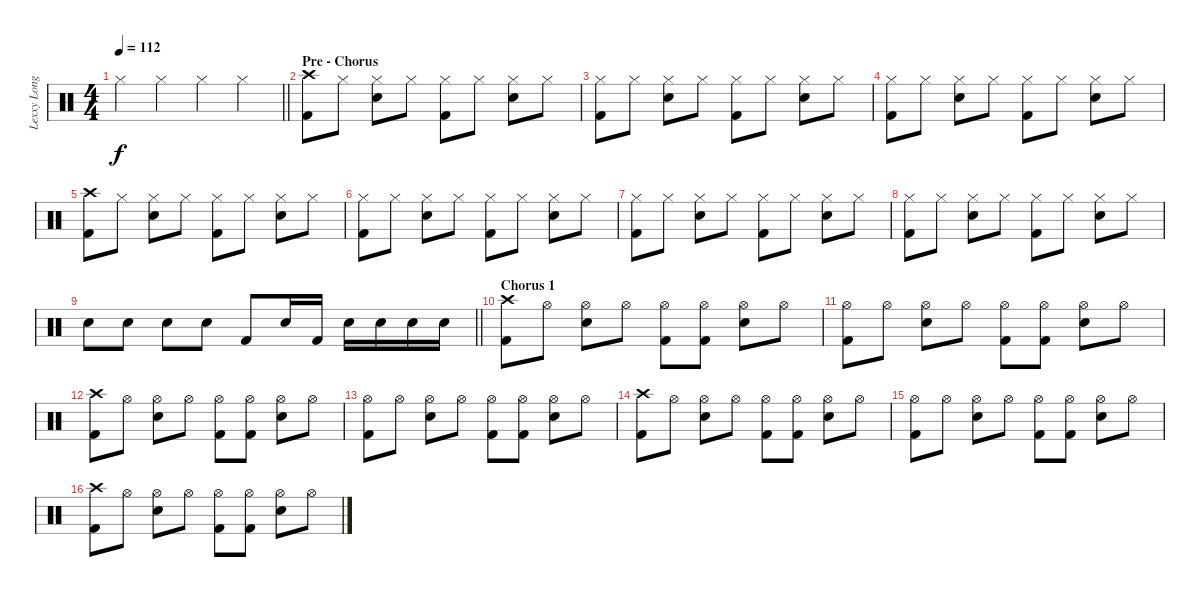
\track ("Lexxy Longlegz (Chuto)" "Lexxy Long") {instrument percussion}
\staff {score}
\articulation defaults
\ts (4 4)
\tempo 112
\clef neutral
\barLineRight lightlight
\ks c "Hi-Hat (closed)".4{dy f} "Hi-Hat (closed)".4 "Hi-Hat (closed)".4 "Hi-Hat (closed)".4
|
\section ("" "Pre - Chorus")
("Crash high (hit)" "Kick (hit) 2").8 "Hi-Hat (closed)".8 ("Hi-Hat (closed)" "Snare (hit) 2").8 "Hi-Hat (closed)".8 ("Hi-Hat (closed)" "Kick (hit) 2").8 "Hi-Hat (closed)".8 ("Hi-Hat (closed)" "Snare (hit) 2").8 "Hi-Hat (closed)".8 |
("Hi-Hat (closed)" "Kick (hit) 2").8 "Hi-Hat (closed)".8 ("Hi-Hat (closed)" "Snare (hit) 2").8 "Hi-Hat (closed)".8 ("Hi-Hat (closed)" "Kick (hit) 2").8 "Hi-Hat (closed)".8 ("Hi-Hat (closed)" "Snare (hit) 2").8 "Hi-Hat (closed)".8 |
("Hi-Hat (closed)" "Kick (hit) 2").8 "Hi-Hat (closed)".8 ("Hi-Hat (closed)" "Snare (hit) 2").8 "Hi-Hat (closed)".8 ("Hi-Hat (closed)" "Kick (hit) 2").8 "Hi-Hat (closed)".8 ("Hi-Hat (closed)" "Snare (hit) 2").8 "Hi-Hat (closed)".8 |
("Crash high (hit)" "Kick (hit) 2").8 "Hi-Hat (closed)".8 ("Hi-Hat (closed)" "Snare (hit) 2").8 "Hi-Hat (closed)".8 ("Hi-Hat (closed)" "Kick (hit) 2").8 "Hi-Hat (closed)".8 ("Hi-Hat (closed)" "Snare (hit) 2").8 "Hi-Hat (closed)".8 |
("Hi-Hat (closed)" "Kick (hit) 2").8 "Hi-Hat (closed)".8 ("Hi-Hat (closed)" "Snare (hit) 2").8 "Hi-Hat (closed)".8 ("Hi-Hat (closed)" "Kick (hit) 2").8 "Hi-Hat (closed)".8 ("Hi-Hat (closed)" "Snare (hit) 2").8 "Hi-Hat (closed)".8 |
("Hi-Hat (closed)" "Kick (hit) 2").8 "Hi-Hat (closed)".8 ("Hi-Hat (closed)" "Snare (hit) 2").8 "Hi-Hat (closed)".8 ("Hi-Hat (closed)" "Kick (hit) 2").8 "Hi-Hat (closed)".8 ("Hi-Hat (closed)" "Snare (hit) 2").8 "Hi-Hat (closed)".8 |
("Hi-Hat (closed)" "Kick (hit) 2").8 "Hi-Hat (closed)".8 ("Hi-Hat (closed)" "Snare (hit) 2").8 "Hi-Hat (closed)".8 ("Hi-Hat (closed)" "Kick (hit) 2").8 "Hi-Hat (closed)".8 ("Hi-Hat (closed)" "Snare (hit) 2").8 "Hi-Hat (closed)".8 |
\barLineRight lightlight "Snare (hit) 2".8 "Snare (hit) 2".8 "Snare (hit) 2".8 "Snare (hit) 2".8 "Kick (hit) 2".8 "Snare (hit) 2".16 "Kick (hit) 2".16 "Snare (hit) 2".16 "Snare (hit) 2".16 "Snare (hit) 2".16 "Snare (hit) 2".16
|
\section ("" "Chorus 1")
("Crash high (hit)" "Kick (hit) 2").8 "Hi-Hat (open)".8 ("Hi-Hat (open)" "Snare (hit) 2").8 "Hi-Hat (open)".8 ("Hi-Hat (open)" "Kick (hit) 2").8 ("Hi-Hat (open)" "Kick (hit) 2").8 ("Hi-Hat (open)" "Snare (hit) 2").8 "Hi-Hat (open)".8 |
("Hi-Hat (open)" "Kick (hit) 2").8 "Hi-Hat (open)".8 ("Hi-Hat (open)" "Snare (hit) 2").8 "Hi-Hat (open)".8 ("Hi-Hat (open)" "Kick (hit) 2").8 ("Hi-Hat (open)" "Kick (hit) 2").8 ("Hi-Hat (open)" "Snare (hit) 2").8 "Hi-Hat (open)".8 |
("Crash high (hit)" "Kick (hit) 2").8 "Hi-Hat (open)".8 ("Hi-Hat (open)" "Snare (hit) 2").8 "Hi-Hat (open)".8 ("Hi-Hat (open)" "Kick (hit) 2").8 ("Hi-Hat (open)" "Kick (hit) 2").8 ("Hi-Hat (open)" "Snare (hit) 2").8 "Hi-Hat (open)".8 |
("Hi-Hat (open)" "Kick (hit) 2").8 "Hi-Hat (open)".8 ("Hi-Hat (open)" "Snare (hit) 2").8 "Hi-Hat (open)".8 ("Hi-Hat (open)" "Kick (hit) 2").8 ("Hi-Hat (open)" "Kick (hit) 2").8 ("Hi-Hat (open)" "Snare (hit) 2").8 "Hi-Hat (open)".8 |
("Crash high (hit)" "Kick (hit) 2").8 "Hi-Hat (open)".8 ("Hi-Hat (open)" "Snare (hit) 2").8 "Hi-Hat (open)".8 ("Hi-Hat (open)" "Kick (hit) 2").8 ("Hi-Hat (open)" "Kick (hit) 2").8 ("Hi-Hat (open)" "Snare (hit) 2").8 "Hi-Hat (open)".8 |
("Hi-Hat (open)" "Kick (hit) 2").8 "Hi-Hat (open)".8 ("Hi-Hat (open)" "Snare (hit) 2").8 "Hi-Hat (open)".8 ("Hi-Hat (open)" "Kick (hit) 2").8 ("Hi-Hat (open)" "Kick (hit) 2").8 ("Hi-Hat (open)" "Snare (hit) 2").8 "Hi-Hat (open)".8 |
("Crash high (hit)" "Kick (hit) 2").8 "Hi-Hat (open)".8 ("Hi-Hat (open)" "Snare (hit) 2").8 "Hi-Hat (open)".8 ("Hi-Hat (open)" "Kick (hit) 2").8 ("Hi-Hat (open)" "Kick (hit) 2").8 ("Hi-Hat (open)" "Snare (hit) 2").8 "Hi-Hat (open)".8
